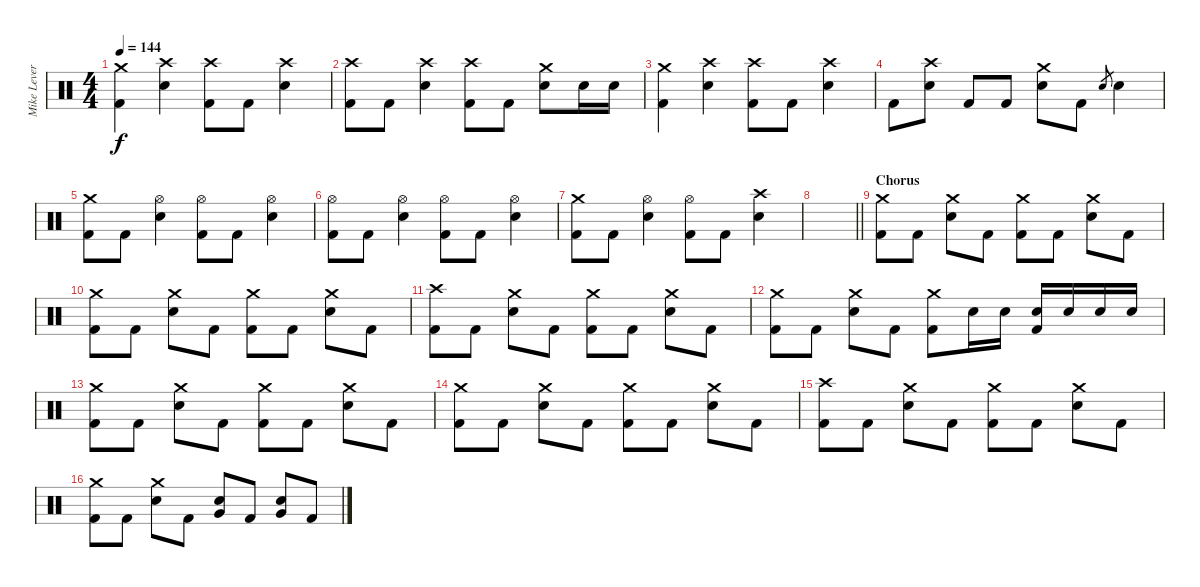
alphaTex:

\track ("Mike Leverence - Drums" "Mike Lever") {instrument percussion}
\staff {score}
\articulation defaults
\ts (4 4)
\tempo 144
\clef neutral
\ks c
("Crash medium (hit)" "Kick (hit) 2").4{dy f} ("Crash high (hit)" "Electric Snare (hit)").4 ("Crash high (hit)" "Kick (hit) 2").8 "Kick (hit) 2".8 ("Crash high (hit)" "Electric Snare (hit)").4 |
("Crash high (hit)" "Kick (hit) 2").8 "Kick (hit) 2".8 ("Crash high (hit)" "Electric Snare (hit)").4 ("Crash high (hit)" "Kick (hit) 2").8 "Kick (hit) 2".8 ("Crash medium (hit)" "Electric Snare (hit)").8 "Electric Snare (hit)".16 "Electric Snare (hit)".16 |
("Crash medium (hit)" "Kick (hit) 2").4 ("Crash high (hit)" "Electric Snare (hit)").4 ("Crash high (hit)" "Kick (hit) 2").8 "Kick (hit) 2".8 ("Crash high (hit)" "Electric Snare (hit)").4 |
"Kick (hit) 2".8 ("Crash high (hit)" "Electric Snare (hit)").8 "Kick (hit) 2".8 "Kick (hit) 2".8 ("Crash medium (hit)" "Electric Snare (hit)").8 "Kick (hit) 2".8 "Electric Snare (hit)".8{gr} "Electric Snare (hit)".4 |
("Crash medium (hit)" "Kick (hit) 2").8 "Kick (hit) 2".8 ("Hi-Hat (open)" "Electric Snare (hit)").4 ("Hi-Hat (open)" "Kick (hit) 2").8 "Kick (hit) 2".8 ("Hi-Hat (open)" "Electric Snare (hit)").4 |
("Hi-Hat (open)" "Kick (hit) 2").8 "Kick (hit) 2".8 ("Hi-Hat (open)" "Electric Snare (hit)").4 ("Hi-Hat (open)" "Kick (hit) 2").8 "Kick (hit) 2".8 ("Hi-Hat (open)" "Electric Snare (hit)").4 |
("Crash medium (hit)" "Kick (hit) 2").8 "Kick (hit) 2".8 ("Hi-Hat (open)" "Electric Snare (hit)").4 ("Hi-Hat (open)" "Kick (hit) 2").8 "Kick (hit) 2".8 ("Crash high (hit)" "Electric Snare (hit)").4 |
\barLineRight lightlight
|
\section ("" "Chorus")
("Crash medium (hit)" "Kick (hit) 2").8 "Kick (hit) 2".8 ("Crash medium (hit)" "Electric Snare (hit)").8 "Kick (hit) 2".8 ("Crash medium (hit)" "Kick (hit) 2").8 "Kick (hit) 2".8 ("Crash medium (hit)" "Electric Snare (hit)").8 "Kick (hit) 2".8 |
("Crash medium (hit)" "Kick (hit) 2").8 "Kick (hit) 2".8 ("Crash medium (hit)" "Electric Snare (hit)").8 "Kick (hit) 2".8 ("Crash medium (hit)" "Kick (hit) 2").8 "Kick (hit) 2".8 ("Crash medium (hit)" "Electric Snare (hit)").8 "Kick (hit) 2".8 |
("Crash high (hit)" "Kick (hit) 2").8 "Kick (hit) 2".8 ("Crash medium (hit)" "Electric Snare (hit)").8 "Kick (hit) 2".8 ("Crash medium (hit)" "Kick (hit) 2").8 "Kick (hit) 2".8 ("Crash medium (hit)" "Electric Snare (hit)").8 "Kick (hit) 2".8 |
("Crash medium (hit)" "Kick (hit) 2").8 "Kick (hit) 2".8 ("Crash medium (hit)" "Electric Snare (hit)").8 "Kick (hit) 2".8 ("Crash medium (hit)" "Kick (hit) 2").8 "Electric Snare (hit)".16 "Electric Snare (hit)".16 ("Electric Snare (hit)" "Kick (hit) 2").16 "Electric Snare (hit)".16 "Electric Snare (hit)".16 "Electric Snare (hit)".16 |
("Crash medium (hit)" "Kick (hit) 2").8 "Kick (hit) 2".8 ("Crash medium (hit)" "Electric Snare (hit)").8 "Kick (hit) 2".8 ("Crash medium (hit)" "Kick (hit) 2").8 "Kick (hit) 2".8 ("Crash medium (hit)" "Electric Snare (hit)").8 "Kick (hit) 2".8 |
("Crash medium (hit)" "Kick (hit) 2").8 "Kick (hit) 2".8 ("Crash medium (hit)" "Electric Snare (hit)").8 "Kick (hit) 2".8 ("Crash medium (hit)" "Kick (hit) 2").8 "Kick (hit) 2".8 ("Crash medium (hit)" "Electric Snare (hit)").8 "Kick (hit) 2".8 |
("Crash high (hit)" "Kick (hit) 2").8 "Kick (hit) 2".8 ("Crash medium (hit)" "Electric Snare (hit)").8 "Kick (hit) 2".8 ("Crash medium (hit)" "Kick (hit) 2").8 "Kick (hit) 2".8 ("Crash medium (hit)" "Electric Snare (hit)").8 "Kick (hit) 2".8 |
("Crash medium (hit)" "Kick (hit) 2").8 "Kick (hit) 2".8 ("Crash medium (hit)" "Electric Snare (hit)").8 "Kick (hit) 2".8 ("Very Low Tom (hit)" "Electric Snare (hit)").8 "Kick (hit) 2".8 ("Very Low Tom (hit)" "Electric Snare (hit)").8 "Kick (hit) 2".8
